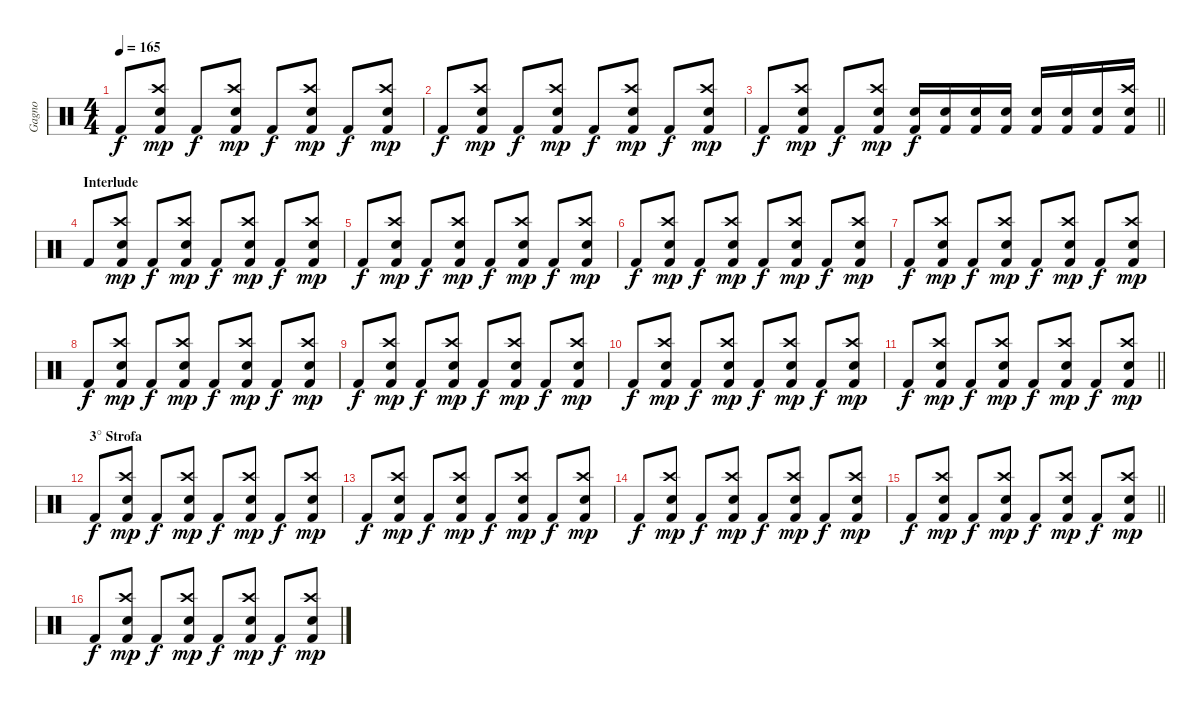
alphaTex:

\track ("Gagno" "Gagno") {instrument percussion}
\staff {score}
\articulation defaults
\ts (4 4)
\tempo 165
\clef neutral
\ks c "Kick (hit) 2".8{dy f}
("Crash high (hit)" "Electric Snare (hit)" "Kick (hit) 2").8{dy mp} "Kick (hit) 2".8{dy f} ("Crash high (hit)" "Electric Snare (hit)" "Kick (hit) 2").8{dy mp} "Kick (hit) 2".8{dy f} ("Crash high (hit)" "Electric Snare (hit)" "Kick (hit) 2").8{dy mp} "Kick (hit) 2".8{dy f} ("Crash high (hit)" "Electric Snare (hit)" "Kick (hit) 2").8{dy mp} |
"Kick (hit) 2".8{dy f} ("Crash high (hit)" "Electric Snare (hit)" "Kick (hit) 2").8{dy mp} "Kick (hit) 2".8{dy f} ("Crash high (hit)" "Electric Snare (hit)" "Kick (hit) 2").8{dy mp} "Kick (hit) 2".8{dy f} ("Crash high (hit)" "Electric Snare (hit)" "Kick (hit) 2").8{dy mp} "Kick (hit) 2".8{dy f} ("Crash high (hit)" "Electric Snare (hit)" "Kick (hit) 2").8{dy mp} |
\barLineRight lightlight "Kick (hit) 2".8{dy f}
("Crash high (hit)" "Electric Snare (hit)" "Kick (hit) 2").8{dy mp} "Kick (hit) 2".8{dy f} ("Crash high (hit)" "Electric Snare (hit)" "Kick (hit) 2").8{dy mp} ("Electric Snare (hit)" "Kick (hit) 2").16{dy f} ("Electric Snare (hit)" "Kick (hit) 2").16 ("Electric Snare (hit)" "Kick (hit) 2").16 ("Electric Snare (hit)" "Kick (hit) 2").16 ("Electric Snare (hit)" "Kick (hit) 2").16 ("Electric Snare (hit)" "Kick (hit) 2").16 ("Electric Snare (hit)" "Kick (hit) 2").16 ("Crash high (hit)" "Electric Snare (hit)" "Kick (hit) 2").16 |
\section ("" "Interlude")
"Kick (hit) 2".8 ("Crash high (hit)" "Electric Snare (hit)" "Kick (hit) 2").8{dy mp} "Kick (hit) 2".8{dy f} ("Crash high (hit)" "Electric Snare (hit)" "Kick (hit) 2").8{dy mp} "Kick (hit) 2".8{dy f} ("Crash high (hit)" "Electric Snare (hit)" "Kick (hit) 2").8{dy mp} "Kick (hit) 2".8{dy f} ("Crash high (hit)" "Electric Snare (hit)" "Kick (hit) 2").8{dy mp} |
"Kick (hit) 2".8{dy f} ("Crash high (hit)" "Electric Snare (hit)" "Kick (hit) 2").8{dy mp} "Kick (hit) 2".8{dy f} ("Crash high (hit)" "Electric Snare (hit)" "Kick (hit) 2").8{dy mp} "Kick (hit) 2".8{dy f} ("Crash high (hit)" "Electric Snare (hit)" "Kick (hit) 2").8{dy mp} "Kick (hit) 2".8{dy f} ("Crash high (hit)" "Electric Snare (hit)" "Kick (hit) 2").8{dy mp} |
"Kick (hit) 2".8{dy f} ("Crash high (hit)" "Electric Snare (hit)" "Kick (hit) 2").8{dy mp} "Kick (hit) 2".8{dy f} ("Crash high (hit)" "Electric Snare (hit)" "Kick (hit) 2").8{dy mp} "Kick (hit) 2".8{dy f} ("Crash high (hit)" "Electric Snare (hit)" "Kick (hit) 2").8{dy mp} "Kick (hit) 2".8{dy f} ("Crash high (hit)" "Electric Snare (hit)" "Kick (hit) 2").8{dy mp} |
"Kick (hit) 2".8{dy f} ("Crash high (hit)" "Electric Snare (hit)" "Kick (hit) 2").8{dy mp} "Kick (hit) 2".8{dy f} ("Crash high (hit)" "Electric Snare (hit)" "Kick (hit) 2").8{dy mp} "Kick (hit) 2".8{dy f} ("Crash high (hit)" "Electric Snare (hit)" "Kick (hit) 2").8{dy mp} "Kick (hit) 2".8{dy f} ("Crash high (hit)" "Electric Snare (hit)" "Kick (hit) 2").8{dy mp} |
"Kick (hit) 2".8{dy f} ("Crash high (hit)" "Electric Snare (hit)" "Kick (hit) 2").8{dy mp} "Kick (hit) 2".8{dy f} ("Crash high (hit)" "Electric Snare (hit)" "Kick (hit) 2").8{dy mp} "Kick (hit) 2".8{dy f} ("Crash high (hit)" "Electric Snare (hit)" "Kick (hit) 2").8{dy mp} "Kick (hit) 2".8{dy f} ("Crash high (hit)" "Electric Snare (hit)" "Kick (hit) 2").8{dy mp} |
"Kick (hit) 2".8{dy f} ("Crash high (hit)" "Electric Snare (hit)" "Kick (hit) 2").8{dy mp} "Kick (hit) 2".8{dy f} ("Crash high (hit)" "Electric Snare (hit)" "Kick (hit) 2").8{dy mp} "Kick (hit) 2".8{dy f} ("Crash high (hit)" "Electric Snare (hit)" "Kick (hit) 2").8{dy mp} "Kick (hit) 2".8{dy f} ("Crash high (hit)" "Electric Snare (hit)" "Kick (hit) 2").8{dy mp} |
"Kick (hit) 2".8{dy f} ("Crash high (hit)" "Electric Snare (hit)" "Kick (hit) 2").8{dy mp} "Kick (hit) 2".8{dy f} ("Crash high (hit)" "Electric Snare (hit)" "Kick (hit) 2").8{dy mp} "Kick (hit) 2".8{dy f} ("Crash high (hit)" "Electric Snare (hit)" "Kick (hit) 2").8{dy mp} "Kick (hit) 2".8{dy f} ("Crash high (hit)" "Electric Snare (hit)" "Kick (hit) 2").8{dy mp} |
\barLineRight lightlight "Kick (hit) 2".8{dy f}
("Crash high (hit)" "Electric Snare (hit)" "Kick (hit) 2").8{dy mp} "Kick (hit) 2".8{dy f} ("Crash high (hit)" "Electric Snare (hit)" "Kick (hit) 2").8{dy mp} "Kick (hit) 2".8{dy f} ("Crash high (hit)" "Electric Snare (hit)" "Kick (hit) 2").8{dy mp} "Kick (hit) 2".8{dy f} ("Crash high (hit)" "Electric Snare (hit)" "Kick (hit) 2").8{dy mp} |
\section ("" "3° Strofa")
"Kick (hit) 2".8{dy f} ("Crash high (hit)" "Electric Snare (hit)" "Kick (hit) 2").8{dy mp} "Kick (hit) 2".8{dy f} ("Crash high (hit)" "Electric Snare (hit)" "Kick (hit) 2").8{dy mp} "Kick (hit) 2".8{dy f} ("Crash high (hit)" "Electric Snare (hit)" "Kick (hit) 2").8{dy mp} "Kick (hit) 2".8{dy f} ("Crash high (hit)" "Electric Snare (hit)" "Kick (hit) 2").8{dy mp} |
"Kick (hit) 2".8{dy f} ("Crash high (hit)" "Electric Snare (hit)" "Kick (hit) 2").8{dy mp} "Kick (hit) 2".8{dy f} ("Crash high (hit)" "Electric Snare (hit)" "Kick (hit) 2").8{dy mp} "Kick (hit) 2".8{dy f} ("Crash high (hit)" "Electric Snare (hit)" "Kick (hit) 2").8{dy mp} "Kick (hit) 2".8{dy f} ("Crash high (hit)" "Electric Snare (hit)" "Kick (hit) 2").8{dy mp} |
"Kick (hit) 2".8{dy f} ("Crash high (hit)" "Electric Snare (hit)" "Kick (hit) 2").8{dy mp} "Kick (hit) 2".8{dy f} ("Crash high (hit)" "Electric Snare (hit)" "Kick (hit) 2").8{dy mp} "Kick (hit) 2".8{dy f} ("Crash high (hit)" "Electric Snare (hit)" "Kick (hit) 2").8{dy mp} "Kick (hit) 2".8{dy f} ("Crash high (hit)" "Electric Snare (hit)" "Kick (hit) 2").8{dy mp} |
\barLineRight lightlight "Kick (hit) 2".8{dy f}
("Crash high (hit)" "Electric Snare (hit)" "Kick (hit) 2").8{dy mp} "Kick (hit) 2".8{dy f} ("Crash high (hit)" "Electric Snare (hit)" "Kick (hit) 2").8{dy mp} "Kick (hit) 2".8{dy f} ("Crash high (hit)" "Electric Snare (hit)" "Kick (hit) 2").8{dy mp} "Kick (hit) 2".8{dy f} ("Crash high (hit)" "Electric Snare (hit)" "Kick (hit) 2").8{dy mp} |
"Kick (hit) 2".8{dy f} ("Crash high (hit)" "Electric Snare (hit)" "Kick (hit) 2").8{dy mp} "Kick (hit) 2".8{dy f} ("Crash high (hit)" "Electric Snare (hit)" "Kick (hit) 2").8{dy mp} "Kick (hit) 2".8{dy f} ("Crash high (hit)" "Electric Snare (hit)" "Kick (hit) 2").8{dy mp} "Kick (hit) 2".8{dy f} ("Crash high (hit)" "Electric Snare (hit)" "Kick (hit) 2").8{dy mp}
